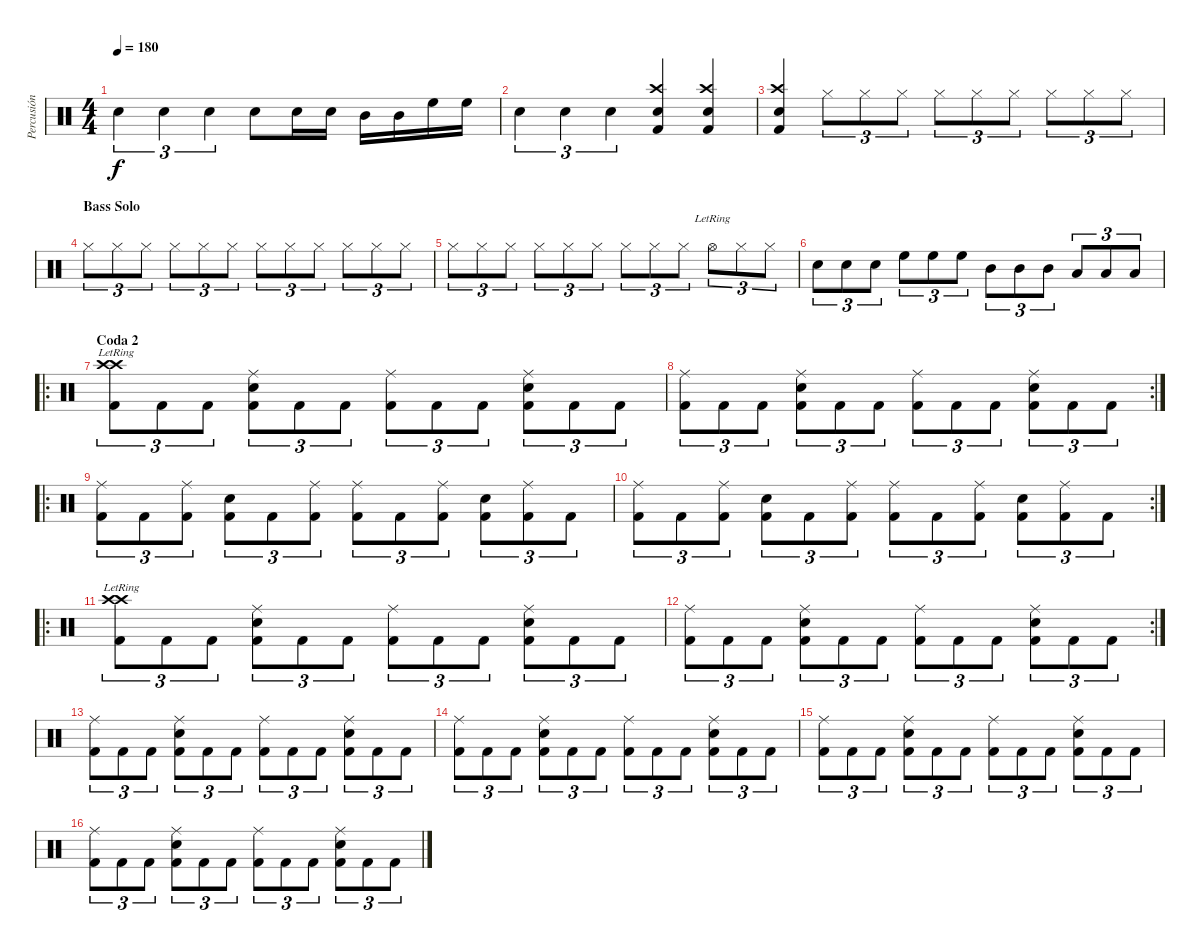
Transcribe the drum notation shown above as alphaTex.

\track ("Percusión" "Percusión") {instrument percussion}
\staff {score}
\articulation defaults
\ts (4 4)
\tempo 180
\clef neutral
\ks c "Snare (hit) 2".4{tu (3 2) dy f} "Snare (hit) 2".4{tu (3 2)} "Snare (hit) 2".4{tu (3 2)} "Snare (hit) 2".8 "Snare (hit) 2".16 "Snare (hit) 2".16 "Mid Tom (hit)".16 "Mid Tom (hit)".16 "High Floor Tom (hit)".16 "High Floor Tom (hit)".16
|
"Snare (hit) 2".4{tu (3 2)} "Snare (hit) 2".4{tu (3 2)} "Snare (hit) 2".4{tu (3 2)} ("Snare (hit) 2" "Crash high (hit)" "Kick (hit) 2").4 ("Snare (hit) 2" "Crash high (hit)" "Kick (hit) 2").4 |
("Snare (hit) 2" "Crash high (hit)" "Kick (hit) 2").4 "Hi-Hat (closed)".8{tu (3 2)} "Hi-Hat (closed)".8{tu (3 2)} "Hi-Hat (closed)".8{tu (3 2)} "Hi-Hat (closed)".8{tu (3 2)} "Hi-Hat (closed)".8{tu (3 2)} "Hi-Hat (closed)".8{tu (3 2)} "Hi-Hat (closed)".8{tu (3 2)} "Hi-Hat (closed)".8{tu (3 2)} "Hi-Hat (closed)".8{tu (3 2)} |
\section ("" "Bass Solo")
"Hi-Hat (closed)".8{tu (3 2)} "Hi-Hat (closed)".8{tu (3 2)} "Hi-Hat (closed)".8{tu (3 2)} "Hi-Hat (closed)".8{tu (3 2)} "Hi-Hat (closed)".8{tu (3 2)} "Hi-Hat (closed)".8{tu (3 2)} "Hi-Hat (closed)".8{tu (3 2)} "Hi-Hat (closed)".8{tu (3 2)} "Hi-Hat (closed)".8{tu (3 2)} "Hi-Hat (closed)".8{tu (3 2)} "Hi-Hat (closed)".8{tu (3 2)} "Hi-Hat (closed)".8{tu (3 2)} |
"Hi-Hat (closed)".8{tu (3 2)} "Hi-Hat (closed)".8{tu (3 2)} "Hi-Hat (closed)".8{tu (3 2)} "Hi-Hat (closed)".8{tu (3 2)} "Hi-Hat (closed)".8{tu (3 2)} "Hi-Hat (closed)".8{tu (3 2)} "Hi-Hat (closed)".8{tu (3 2)} "Hi-Hat (closed)".8{tu (3 2)} "Hi-Hat (closed)".8{tu (3 2)} "Hi-Hat (open)"{lr}.8{tu (3 2)} "Hi-Hat (closed)".8{tu (3 2)} "Hi-Hat (closed)".8{tu (3 2)} |
"Electric Snare (hit)".8{tu (3 2)} "Electric Snare (hit)".8{tu (3 2)} "Electric Snare (hit)".8{tu (3 2)} "High Floor Tom (hit)".8{tu (3 2)} "High Floor Tom (hit)".8{tu (3 2)} "High Floor Tom (hit)".8{tu (3 2)} "Mid Tom (hit)".8{tu (3 2)} "Mid Tom (hit)".8{tu (3 2)} "Mid Tom (hit)".8{tu (3 2)} "Low Floor Tom (hit)".8{tu (3 2)} "Low Floor Tom (hit)".8{tu (3 2)} "Low Floor Tom (hit)".8{tu (3 2)} |
\ro
\section ("" "Coda 2")
("Crash high (hit)"{lr} "Crash high (hit)"{lr} "Kick (hit) 2").8{tu (3 2)} "Kick (hit) 2".8{tu (3 2)} "Kick (hit) 2".8{tu (3 2)} ("Ride (middle)" "Snare (hit) 2" "Kick (hit) 2").8{tu (3 2)} "Kick (hit) 2".8{tu (3 2)} "Kick (hit) 2".8{tu (3 2)} ("Ride (middle)" "Kick (hit) 2").8{tu (3 2)} "Kick (hit) 2".8{tu (3 2)} "Kick (hit) 2".8{tu (3 2)} ("Ride (middle)" "Snare (hit) 2" "Kick (hit) 2").8{tu (3 2)} "Kick (hit) 2".8{tu (3 2)} "Kick (hit) 2".8{tu (3 2)} |
\rc 2
("Ride (middle)" "Kick (hit) 2").8{tu (3 2)} "Kick (hit) 2".8{tu (3 2)} "Kick (hit) 2".8{tu (3 2)} ("Ride (middle)" "Snare (hit) 2" "Kick (hit) 2").8{tu (3 2)} "Kick (hit) 2".8{tu (3 2)} "Kick (hit) 2".8{tu (3 2)} ("Ride (middle)" "Kick (hit) 2").8{tu (3 2)} "Kick (hit) 2".8{tu (3 2)} "Kick (hit) 2".8{tu (3 2)} ("Ride (middle)" "Snare (hit) 2" "Kick (hit) 2").8{tu (3 2)} "Kick (hit) 2".8{tu (3 2)} "Kick (hit) 2".8{tu (3 2)} |
\ro
("Ride (middle)" "Kick (hit) 2").8{tu (3 2)} "Kick (hit) 2".8{tu (3 2)} ("Ride (middle)" "Kick (hit) 2").8{tu (3 2)} ("Snare (hit) 2" "Kick (hit) 2").8{tu (3 2)} "Kick (hit) 2".8{tu (3 2)} ("Ride (middle)" "Kick (hit) 2").8{tu (3 2)} ("Ride (middle)" "Kick (hit) 2").8{tu (3 2)} "Kick (hit) 2".8{tu (3 2)} ("Ride (middle)" "Kick (hit) 2").8{tu (3 2)} ("Snare (hit) 2" "Kick (hit) 2").8{tu (3 2)} ("Ride (middle)" "Kick (hit) 2").8{tu (3 2)} "Kick (hit) 2".8{tu (3 2)} |
\rc 2
("Ride (middle)" "Kick (hit) 2").8{tu (3 2)} "Kick (hit) 2".8{tu (3 2)} ("Ride (middle)" "Kick (hit) 2").8{tu (3 2)} ("Snare (hit) 2" "Kick (hit) 2").8{tu (3 2)} "Kick (hit) 2".8{tu (3 2)} ("Ride (middle)" "Kick (hit) 2").8{tu (3 2)} ("Ride (middle)" "Kick (hit) 2").8{tu (3 2)} "Kick (hit) 2".8{tu (3 2)} ("Ride (middle)" "Kick (hit) 2").8{tu (3 2)} ("Snare (hit) 2" "Kick (hit) 2").8{tu (3 2)} ("Ride (middle)" "Kick (hit) 2").8{tu (3 2)} "Kick (hit) 2".8{tu (3 2)} |
\ro
("Crash high (hit)"{lr} "Crash high (hit)"{lr} "Kick (hit) 2").8{tu (3 2)} "Kick (hit) 2".8{tu (3 2)} "Kick (hit) 2".8{tu (3 2)} ("Ride (middle)" "Snare (hit) 2" "Kick (hit) 2").8{tu (3 2)} "Kick (hit) 2".8{tu (3 2)} "Kick (hit) 2".8{tu (3 2)} ("Ride (middle)" "Kick (hit) 2").8{tu (3 2)} "Kick (hit) 2".8{tu (3 2)} "Kick (hit) 2".8{tu (3 2)} ("Ride (middle)" "Snare (hit) 2" "Kick (hit) 2").8{tu (3 2)} "Kick (hit) 2".8{tu (3 2)} "Kick (hit) 2".8{tu (3 2)} |
\rc 2
("Ride (middle)" "Kick (hit) 2").8{tu (3 2)} "Kick (hit) 2".8{tu (3 2)} "Kick (hit) 2".8{tu (3 2)} ("Ride (middle)" "Snare (hit) 2" "Kick (hit) 2").8{tu (3 2)} "Kick (hit) 2".8{tu (3 2)} "Kick (hit) 2".8{tu (3 2)} ("Ride (middle)" "Kick (hit) 2").8{tu (3 2)} "Kick (hit) 2".8{tu (3 2)} "Kick (hit) 2".8{tu (3 2)} ("Ride (middle)" "Snare (hit) 2" "Kick (hit) 2").8{tu (3 2)} "Kick (hit) 2".8{tu (3 2)} "Kick (hit) 2".8{tu (3 2)} |
("Ride (middle)" "Kick (hit) 2").8{tu (3 2)} "Kick (hit) 2".8{tu (3 2)} "Kick (hit) 2".8{tu (3 2)} ("Ride (middle)" "Snare (hit) 2" "Kick (hit) 2").8{tu (3 2)} "Kick (hit) 2".8{tu (3 2)} "Kick (hit) 2".8{tu (3 2)} ("Ride (middle)" "Kick (hit) 2").8{tu (3 2)} "Kick (hit) 2".8{tu (3 2)} "Kick (hit) 2".8{tu (3 2)} ("Ride (middle)" "Snare (hit) 2" "Kick (hit) 2").8{tu (3 2)} "Kick (hit) 2".8{tu (3 2)} "Kick (hit) 2".8{tu (3 2)} |
("Ride (middle)" "Kick (hit) 2").8{tu (3 2)} "Kick (hit) 2".8{tu (3 2)} "Kick (hit) 2".8{tu (3 2)} ("Ride (middle)" "Snare (hit) 2" "Kick (hit) 2").8{tu (3 2)} "Kick (hit) 2".8{tu (3 2)} "Kick (hit) 2".8{tu (3 2)} ("Ride (middle)" "Kick (hit) 2").8{tu (3 2)} "Kick (hit) 2".8{tu (3 2)} "Kick (hit) 2".8{tu (3 2)} ("Ride (middle)" "Snare (hit) 2" "Kick (hit) 2").8{tu (3 2)} "Kick (hit) 2".8{tu (3 2)} "Kick (hit) 2".8{tu (3 2)} |
("Ride (middle)" "Kick (hit) 2").8{tu (3 2)} "Kick (hit) 2".8{tu (3 2)} "Kick (hit) 2".8{tu (3 2)} ("Ride (middle)" "Snare (hit) 2" "Kick (hit) 2").8{tu (3 2)} "Kick (hit) 2".8{tu (3 2)} "Kick (hit) 2".8{tu (3 2)} ("Ride (middle)" "Kick (hit) 2").8{tu (3 2)} "Kick (hit) 2".8{tu (3 2)} "Kick (hit) 2".8{tu (3 2)} ("Ride (middle)" "Snare (hit) 2" "Kick (hit) 2").8{tu (3 2)} "Kick (hit) 2".8{tu (3 2)} "Kick (hit) 2".8{tu (3 2)} |
("Ride (middle)" "Kick (hit) 2").8{tu (3 2)} "Kick (hit) 2".8{tu (3 2)} "Kick (hit) 2".8{tu (3 2)} ("Ride (middle)" "Snare (hit) 2" "Kick (hit) 2").8{tu (3 2)} "Kick (hit) 2".8{tu (3 2)} "Kick (hit) 2".8{tu (3 2)} ("Ride (middle)" "Kick (hit) 2").8{tu (3 2)} "Kick (hit) 2".8{tu (3 2)} "Kick (hit) 2".8{tu (3 2)} ("Ride (middle)" "Snare (hit) 2" "Kick (hit) 2").8{tu (3 2)} "Kick (hit) 2".8{tu (3 2)} "Kick (hit) 2".8{tu (3 2)}
